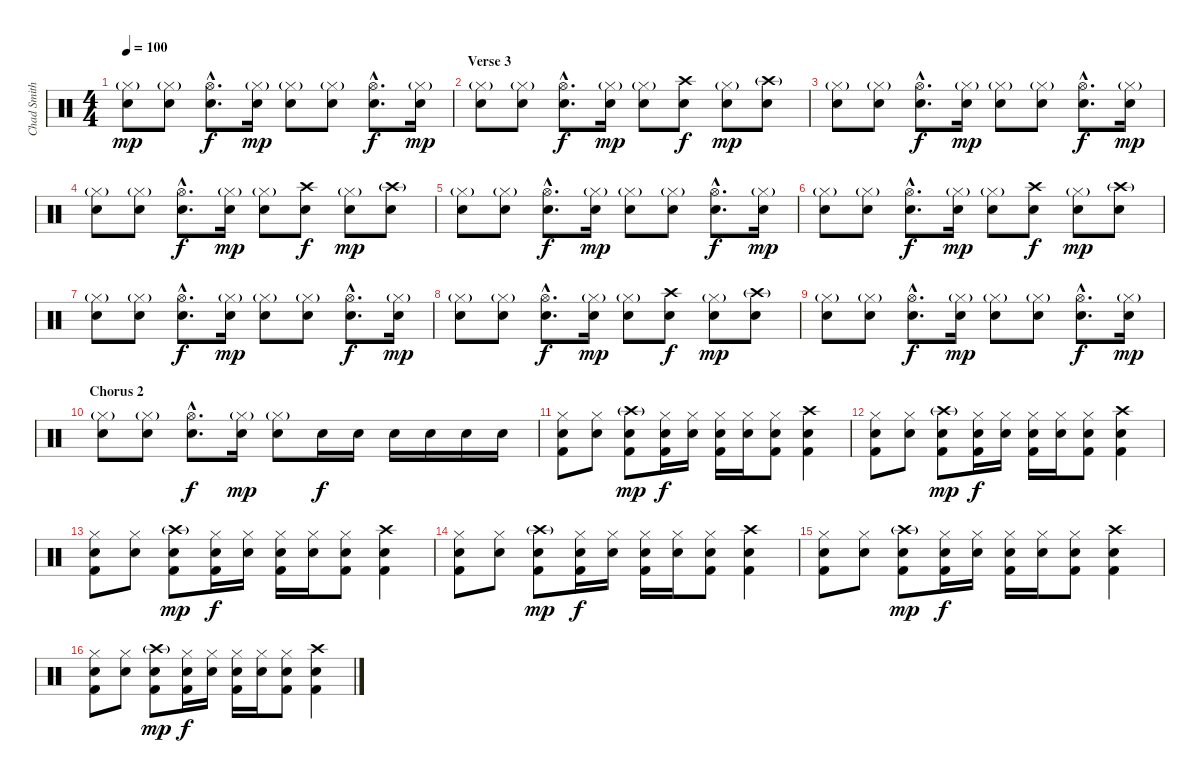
\track ("Chad Smith - Drums" "Chad Smith") {instrument percussion}
\staff {score}
\articulation defaults
\ts (4 4)
\tempo 100
\clef neutral
\ks c
("Hi-Hat (closed)"{g} "Snare (hit) 2").8{dy mp} ("Hi-Hat (closed)"{g} "Snare (hit) 2").8 ("Hi-Hat (open)"{hac} "Snare (hit) 2"{hac}).8{d dy f} ("Hi-Hat (closed)"{g} "Snare (hit) 2").16{dy mp} ("Hi-Hat (closed)"{g} "Snare (hit) 2").8 ("Hi-Hat (closed)"{g} "Snare (hit) 2").8 ("Hi-Hat (open)"{hac} "Snare (hit) 2"{hac}).8{d dy f} ("Hi-Hat (closed)"{g} "Snare (hit) 2").16{dy mp} |
\section ("" "Verse 3")
("Hi-Hat (closed)"{g} "Snare (hit) 2").8 ("Hi-Hat (closed)"{g} "Snare (hit) 2").8 ("Hi-Hat (open)"{hac} "Snare (hit) 2"{hac}).8{d dy f} ("Hi-Hat (closed)"{g} "Snare (hit) 2").16{dy mp} ("Hi-Hat (closed)"{g} "Snare (hit) 2").8 ("Crash high (hit)" "Snare (hit) 2").8{dy f} ("Hi-Hat (closed)"{g} "Snare (hit) 2").8{dy mp} ("Crash high (hit)"{g} "Snare (hit) 2").8 |
("Hi-Hat (closed)"{g} "Snare (hit) 2").8 ("Hi-Hat (closed)"{g} "Snare (hit) 2").8 ("Hi-Hat (open)"{hac} "Snare (hit) 2"{hac}).8{d dy f} ("Hi-Hat (closed)"{g} "Snare (hit) 2").16{dy mp} ("Hi-Hat (closed)"{g} "Snare (hit) 2").8 ("Hi-Hat (closed)"{g} "Snare (hit) 2").8 ("Hi-Hat (open)"{hac} "Snare (hit) 2"{hac}).8{d dy f} ("Hi-Hat (closed)"{g} "Snare (hit) 2").16{dy mp} |
("Hi-Hat (closed)"{g} "Snare (hit) 2").8 ("Hi-Hat (closed)"{g} "Snare (hit) 2").8 ("Hi-Hat (open)"{hac} "Snare (hit) 2"{hac}).8{d dy f} ("Hi-Hat (closed)"{g} "Snare (hit) 2").16{dy mp} ("Hi-Hat (closed)"{g} "Snare (hit) 2").8 ("Crash high (hit)" "Snare (hit) 2").8{dy f} ("Hi-Hat (closed)"{g} "Snare (hit) 2").8{dy mp} ("Crash high (hit)"{g} "Snare (hit) 2").8 |
("Hi-Hat (closed)"{g} "Snare (hit) 2").8 ("Hi-Hat (closed)"{g} "Snare (hit) 2").8 ("Hi-Hat (open)"{hac} "Snare (hit) 2"{hac}).8{d dy f} ("Hi-Hat (closed)"{g} "Snare (hit) 2").16{dy mp} ("Hi-Hat (closed)"{g} "Snare (hit) 2").8 ("Hi-Hat (closed)"{g} "Snare (hit) 2").8 ("Hi-Hat (open)"{hac} "Snare (hit) 2"{hac}).8{d dy f} ("Hi-Hat (closed)"{g} "Snare (hit) 2").16{dy mp} |
("Hi-Hat (closed)"{g} "Snare (hit) 2").8 ("Hi-Hat (closed)"{g} "Snare (hit) 2").8 ("Hi-Hat (open)"{hac} "Snare (hit) 2"{hac}).8{d dy f} ("Hi-Hat (closed)"{g} "Snare (hit) 2").16{dy mp} ("Hi-Hat (closed)"{g} "Snare (hit) 2").8 ("Crash high (hit)" "Snare (hit) 2").8{dy f} ("Hi-Hat (closed)"{g} "Snare (hit) 2").8{dy mp} ("Crash high (hit)"{g} "Snare (hit) 2").8 |
("Hi-Hat (closed)"{g} "Snare (hit) 2").8 ("Hi-Hat (closed)"{g} "Snare (hit) 2").8 ("Hi-Hat (open)"{hac} "Snare (hit) 2"{hac}).8{d dy f} ("Hi-Hat (closed)"{g} "Snare (hit) 2").16{dy mp} ("Hi-Hat (closed)"{g} "Snare (hit) 2").8 ("Hi-Hat (closed)"{g} "Snare (hit) 2").8 ("Hi-Hat (open)"{hac} "Snare (hit) 2"{hac}).8{d dy f} ("Hi-Hat (closed)"{g} "Snare (hit) 2").16{dy mp} |
("Hi-Hat (closed)"{g} "Snare (hit) 2").8 ("Hi-Hat (closed)"{g} "Snare (hit) 2").8 ("Hi-Hat (open)"{hac} "Snare (hit) 2"{hac}).8{d dy f} ("Hi-Hat (closed)"{g} "Snare (hit) 2").16{dy mp} ("Hi-Hat (closed)"{g} "Snare (hit) 2").8 ("Crash high (hit)" "Snare (hit) 2").8{dy f} ("Hi-Hat (closed)"{g} "Snare (hit) 2").8{dy mp} ("Crash high (hit)"{g} "Snare (hit) 2").8 |
("Hi-Hat (closed)"{g} "Snare (hit) 2").8 ("Hi-Hat (closed)"{g} "Snare (hit) 2").8 ("Hi-Hat (open)"{hac} "Snare (hit) 2"{hac}).8{d dy f} ("Hi-Hat (closed)"{g} "Snare (hit) 2").16{dy mp} ("Hi-Hat (closed)"{g} "Snare (hit) 2").8 ("Hi-Hat (closed)"{g} "Snare (hit) 2").8 ("Hi-Hat (open)"{hac} "Snare (hit) 2"{hac}).8{d dy f} ("Hi-Hat (closed)"{g} "Snare (hit) 2").16{dy mp} |
\section ("" "Chorus 2")
("Hi-Hat (closed)"{g} "Snare (hit) 2").8 ("Hi-Hat (closed)"{g} "Snare (hit) 2").8 ("Hi-Hat (open)"{hac} "Snare (hit) 2"{hac}).8{d dy f} ("Hi-Hat (closed)"{g} "Snare (hit) 2").16{dy mp} ("Hi-Hat (closed)"{g} "Snare (hit) 2").8 "Electric Snare (hit)".16{dy f} "Electric Snare (hit)".16 "Electric Snare (hit)".16 "Electric Snare (hit)".16 "Electric Snare (hit)".16 "Electric Snare (hit)".16 |
("Hi-Hat (closed)" "Electric Snare (hit)" "Kick (hit) 2").8 ("Hi-Hat (closed)" "Electric Snare (hit)").8 ("Crash high (hit)"{g} "Electric Snare (hit)" "Kick (hit) 2").8{dy mp} ("Hi-Hat (closed)" "Electric Snare (hit)" "Kick (hit) 2").16{dy f} ("Hi-Hat (closed)" "Electric Snare (hit)").16 ("Hi-Hat (closed)" "Electric Snare (hit)" "Kick (hit) 2").16 ("Hi-Hat (closed)" "Electric Snare (hit)").16 ("Hi-Hat (closed)" "Electric Snare (hit)" "Kick (hit) 2").8 ("Crash high (hit)" "Electric Snare (hit)" "Kick (hit) 2").4 |
("Hi-Hat (closed)" "Electric Snare (hit)" "Kick (hit) 2").8 ("Hi-Hat (closed)" "Electric Snare (hit)").8 ("Crash high (hit)"{g} "Electric Snare (hit)" "Kick (hit) 2").8{dy mp} ("Hi-Hat (closed)" "Electric Snare (hit)" "Kick (hit) 2").16{dy f} ("Hi-Hat (closed)" "Electric Snare (hit)").16 ("Hi-Hat (closed)" "Electric Snare (hit)" "Kick (hit) 2").16 ("Hi-Hat (closed)" "Electric Snare (hit)").16 ("Hi-Hat (closed)" "Electric Snare (hit)" "Kick (hit) 2").8 ("Crash high (hit)" "Electric Snare (hit)" "Kick (hit) 2").4 |
("Hi-Hat (closed)" "Electric Snare (hit)" "Kick (hit) 2").8 ("Hi-Hat (closed)" "Electric Snare (hit)").8 ("Crash high (hit)"{g} "Electric Snare (hit)" "Kick (hit) 2").8{dy mp} ("Hi-Hat (closed)" "Electric Snare (hit)" "Kick (hit) 2").16{dy f} ("Hi-Hat (closed)" "Electric Snare (hit)").16 ("Hi-Hat (closed)" "Electric Snare (hit)" "Kick (hit) 2").16 ("Hi-Hat (closed)" "Electric Snare (hit)").16 ("Hi-Hat (closed)" "Electric Snare (hit)" "Kick (hit) 2").8 ("Crash high (hit)" "Electric Snare (hit)" "Kick (hit) 2").4 |
("Hi-Hat (closed)" "Electric Snare (hit)" "Kick (hit) 2").8 ("Hi-Hat (closed)" "Electric Snare (hit)").8 ("Crash high (hit)"{g} "Electric Snare (hit)" "Kick (hit) 2").8{dy mp} ("Hi-Hat (closed)" "Electric Snare (hit)" "Kick (hit) 2").16{dy f} ("Hi-Hat (closed)" "Electric Snare (hit)").16 ("Hi-Hat (closed)" "Electric Snare (hit)" "Kick (hit) 2").16 ("Hi-Hat (closed)" "Electric Snare (hit)").16 ("Hi-Hat (closed)" "Electric Snare (hit)" "Kick (hit) 2").8 ("Crash high (hit)" "Electric Snare (hit)" "Kick (hit) 2").4 |
("Hi-Hat (closed)" "Electric Snare (hit)" "Kick (hit) 2").8 ("Hi-Hat (closed)" "Electric Snare (hit)").8 ("Crash high (hit)"{g} "Electric Snare (hit)" "Kick (hit) 2").8{dy mp} ("Hi-Hat (closed)" "Electric Snare (hit)" "Kick (hit) 2").16{dy f} ("Hi-Hat (closed)" "Electric Snare (hit)").16 ("Hi-Hat (closed)" "Electric Snare (hit)" "Kick (hit) 2").16 ("Hi-Hat (closed)" "Electric Snare (hit)").16 ("Hi-Hat (closed)" "Electric Snare (hit)" "Kick (hit) 2").8 ("Crash high (hit)" "Electric Snare (hit)" "Kick (hit) 2").4 |
("Hi-Hat (closed)" "Electric Snare (hit)" "Kick (hit) 2").8 ("Hi-Hat (closed)" "Electric Snare (hit)").8 ("Crash high (hit)"{g} "Electric Snare (hit)" "Kick (hit) 2").8{dy mp} ("Hi-Hat (closed)" "Electric Snare (hit)" "Kick (hit) 2").16{dy f} ("Hi-Hat (closed)" "Electric Snare (hit)").16 ("Hi-Hat (closed)" "Electric Snare (hit)" "Kick (hit) 2").16 ("Hi-Hat (closed)" "Electric Snare (hit)").16 ("Hi-Hat (closed)" "Electric Snare (hit)" "Kick (hit) 2").8 ("Crash high (hit)" "Electric Snare (hit)" "Kick (hit) 2").4
